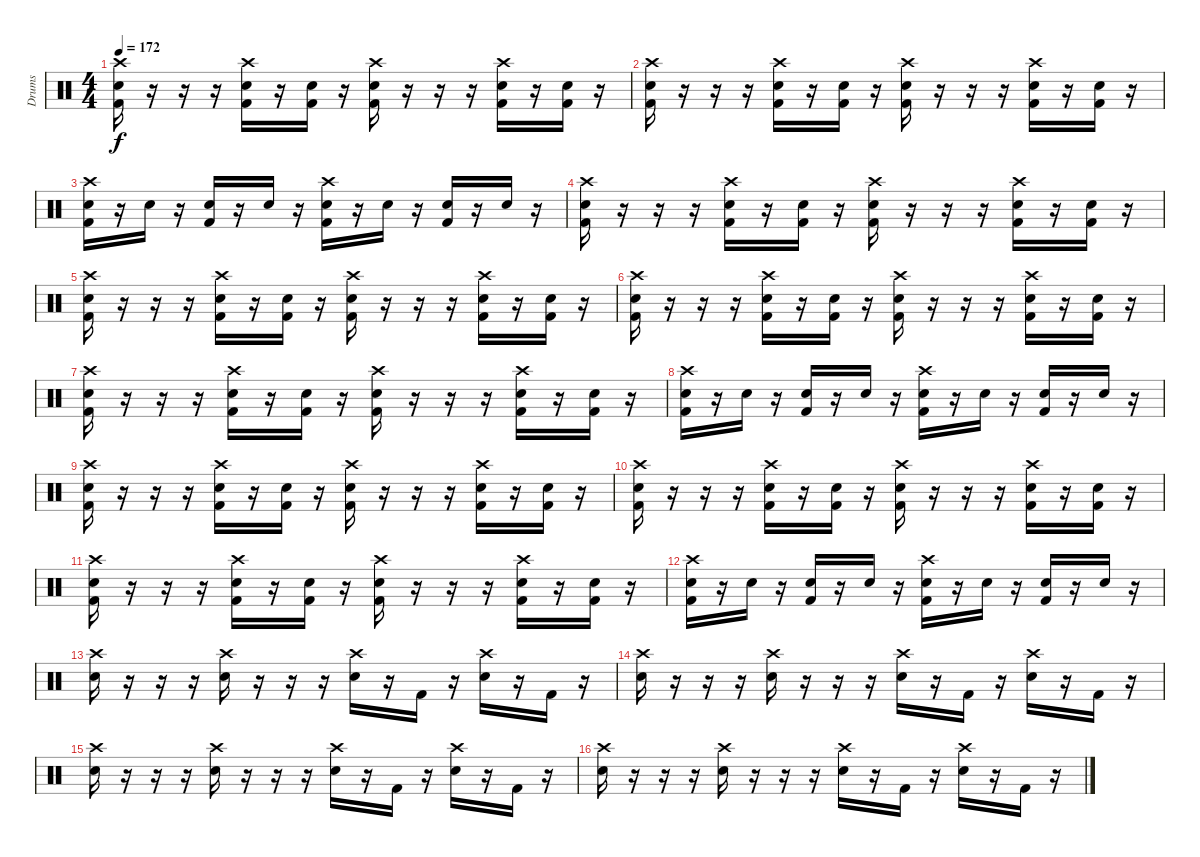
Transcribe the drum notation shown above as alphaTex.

\track ("Drums" "Drums") {instrument percussion}
\staff {score}
\articulation defaults
\ts (4 4)
\tempo 172
\clef neutral
\ks c
("Crash high (hit)" "Electric Snare (hit)" "Kick (hit) 2").16{dy f} r.16 r.16 r.16 ("Crash high (hit)" "Electric Snare (hit)" "Kick (hit) 2").16 r.16 ("Electric Snare (hit)" "Kick (hit) 2").16 r.16 ("Crash high (hit)" "Electric Snare (hit)" "Kick (hit) 2").16 r.16 r.16 r.16 ("Crash high (hit)" "Electric Snare (hit)" "Kick (hit) 2").16 r.16 ("Electric Snare (hit)" "Kick (hit) 2").16 r.16 |
("Crash high (hit)" "Electric Snare (hit)" "Kick (hit) 2").16 r.16 r.16 r.16 ("Crash high (hit)" "Electric Snare (hit)" "Kick (hit) 2").16 r.16 ("Electric Snare (hit)" "Kick (hit) 2").16 r.16 ("Crash high (hit)" "Electric Snare (hit)" "Kick (hit) 2").16 r.16 r.16 r.16 ("Crash high (hit)" "Electric Snare (hit)" "Kick (hit) 2").16 r.16 ("Electric Snare (hit)" "Kick (hit) 2").16 r.16 |
("Crash high (hit)" "Electric Snare (hit)" "Kick (hit) 2").16 r.16 "Electric Snare (hit)".16 r.16 ("Electric Snare (hit)" "Kick (hit) 2").16 r.16 "Electric Snare (hit)".16 r.16 ("Crash high (hit)" "Electric Snare (hit)" "Kick (hit) 2").16 r.16 "Electric Snare (hit)".16 r.16 ("Electric Snare (hit)" "Kick (hit) 2").16 r.16 "Electric Snare (hit)".16 r.16 |
("Crash high (hit)" "Electric Snare (hit)" "Kick (hit) 2").16 r.16 r.16 r.16 ("Crash high (hit)" "Electric Snare (hit)" "Kick (hit) 2").16 r.16 ("Electric Snare (hit)" "Kick (hit) 2").16 r.16 ("Crash high (hit)" "Electric Snare (hit)" "Kick (hit) 2").16 r.16 r.16 r.16 ("Crash high (hit)" "Electric Snare (hit)" "Kick (hit) 2").16 r.16 ("Electric Snare (hit)" "Kick (hit) 2").16 r.16 |
("Crash high (hit)" "Electric Snare (hit)" "Kick (hit) 2").16 r.16 r.16 r.16 ("Crash high (hit)" "Electric Snare (hit)" "Kick (hit) 2").16 r.16 ("Electric Snare (hit)" "Kick (hit) 2").16 r.16 ("Crash high (hit)" "Electric Snare (hit)" "Kick (hit) 2").16 r.16 r.16 r.16 ("Crash high (hit)" "Electric Snare (hit)" "Kick (hit) 2").16 r.16 ("Electric Snare (hit)" "Kick (hit) 2").16 r.16 |
("Crash high (hit)" "Electric Snare (hit)" "Kick (hit) 2").16 r.16 r.16 r.16 ("Crash high (hit)" "Electric Snare (hit)" "Kick (hit) 2").16 r.16 ("Electric Snare (hit)" "Kick (hit) 2").16 r.16 ("Crash high (hit)" "Electric Snare (hit)" "Kick (hit) 2").16 r.16 r.16 r.16 ("Crash high (hit)" "Electric Snare (hit)" "Kick (hit) 2").16 r.16 ("Electric Snare (hit)" "Kick (hit) 2").16 r.16 |
("Crash high (hit)" "Electric Snare (hit)" "Kick (hit) 2").16 r.16 r.16 r.16 ("Crash high (hit)" "Electric Snare (hit)" "Kick (hit) 2").16 r.16 ("Electric Snare (hit)" "Kick (hit) 2").16 r.16 ("Crash high (hit)" "Electric Snare (hit)" "Kick (hit) 2").16 r.16 r.16 r.16 ("Crash high (hit)" "Electric Snare (hit)" "Kick (hit) 2").16 r.16 ("Electric Snare (hit)" "Kick (hit) 2").16 r.16 |
("Crash high (hit)" "Electric Snare (hit)" "Kick (hit) 2").16 r.16 "Electric Snare (hit)".16 r.16 ("Electric Snare (hit)" "Kick (hit) 2").16 r.16 "Electric Snare (hit)".16 r.16 ("Crash high (hit)" "Electric Snare (hit)" "Kick (hit) 2").16 r.16 "Electric Snare (hit)".16 r.16 ("Electric Snare (hit)" "Kick (hit) 2").16 r.16 "Electric Snare (hit)".16 r.16 |
("Crash high (hit)" "Electric Snare (hit)" "Kick (hit) 2").16 r.16 r.16 r.16 ("Crash high (hit)" "Electric Snare (hit)" "Kick (hit) 2").16 r.16 ("Electric Snare (hit)" "Kick (hit) 2").16 r.16 ("Crash high (hit)" "Electric Snare (hit)" "Kick (hit) 2").16 r.16 r.16 r.16 ("Crash high (hit)" "Electric Snare (hit)" "Kick (hit) 2").16 r.16 ("Electric Snare (hit)" "Kick (hit) 2").16 r.16 |
("Crash high (hit)" "Electric Snare (hit)" "Kick (hit) 2").16 r.16 r.16 r.16 ("Crash high (hit)" "Electric Snare (hit)" "Kick (hit) 2").16 r.16 ("Electric Snare (hit)" "Kick (hit) 2").16 r.16 ("Crash high (hit)" "Electric Snare (hit)" "Kick (hit) 2").16 r.16 r.16 r.16 ("Crash high (hit)" "Electric Snare (hit)" "Kick (hit) 2").16 r.16 ("Electric Snare (hit)" "Kick (hit) 2").16 r.16 |
("Crash high (hit)" "Electric Snare (hit)" "Kick (hit) 2").16 r.16 r.16 r.16 ("Crash high (hit)" "Electric Snare (hit)" "Kick (hit) 2").16 r.16 ("Electric Snare (hit)" "Kick (hit) 2").16 r.16 ("Crash high (hit)" "Electric Snare (hit)" "Kick (hit) 2").16 r.16 r.16 r.16 ("Crash high (hit)" "Electric Snare (hit)" "Kick (hit) 2").16 r.16 ("Electric Snare (hit)" "Kick (hit) 2").16 r.16 |
("Crash high (hit)" "Electric Snare (hit)" "Kick (hit) 2").16 r.16 "Electric Snare (hit)".16 r.16 ("Electric Snare (hit)" "Kick (hit) 2").16 r.16 "Electric Snare (hit)".16 r.16 ("Crash high (hit)" "Electric Snare (hit)" "Kick (hit) 2").16 r.16 "Electric Snare (hit)".16 r.16 ("Electric Snare (hit)" "Kick (hit) 2").16 r.16 "Electric Snare (hit)".16 r.16 |
("Crash high (hit)" "Electric Snare (hit)").16 r.16 r.16 r.16 ("Crash high (hit)" "Electric Snare (hit)").16 r.16 r.16 r.16 ("Crash high (hit)" "Electric Snare (hit)").16 r.16 "Kick (hit) 2".16 r.16 ("Crash high (hit)" "Electric Snare (hit)").16 r.16 "Kick (hit) 2".16 r.16 |
("Crash high (hit)" "Electric Snare (hit)").16 r.16 r.16 r.16 ("Crash high (hit)" "Electric Snare (hit)").16 r.16 r.16 r.16 ("Crash high (hit)" "Electric Snare (hit)").16 r.16 "Kick (hit) 2".16 r.16 ("Crash high (hit)" "Electric Snare (hit)").16 r.16 "Kick (hit) 2".16 r.16 |
("Crash high (hit)" "Electric Snare (hit)").16 r.16 r.16 r.16 ("Crash high (hit)" "Electric Snare (hit)").16 r.16 r.16 r.16 ("Crash high (hit)" "Electric Snare (hit)").16 r.16 "Kick (hit) 2".16 r.16 ("Crash high (hit)" "Electric Snare (hit)").16 r.16 "Kick (hit) 2".16 r.16 |
("Crash high (hit)" "Electric Snare (hit)").16 r.16 r.16 r.16 ("Crash high (hit)" "Electric Snare (hit)").16 r.16 r.16 r.16 ("Crash high (hit)" "Electric Snare (hit)").16 r.16 "Kick (hit) 2".16 r.16 ("Crash high (hit)" "Electric Snare (hit)").16 r.16 "Kick (hit) 2".16 r.16
